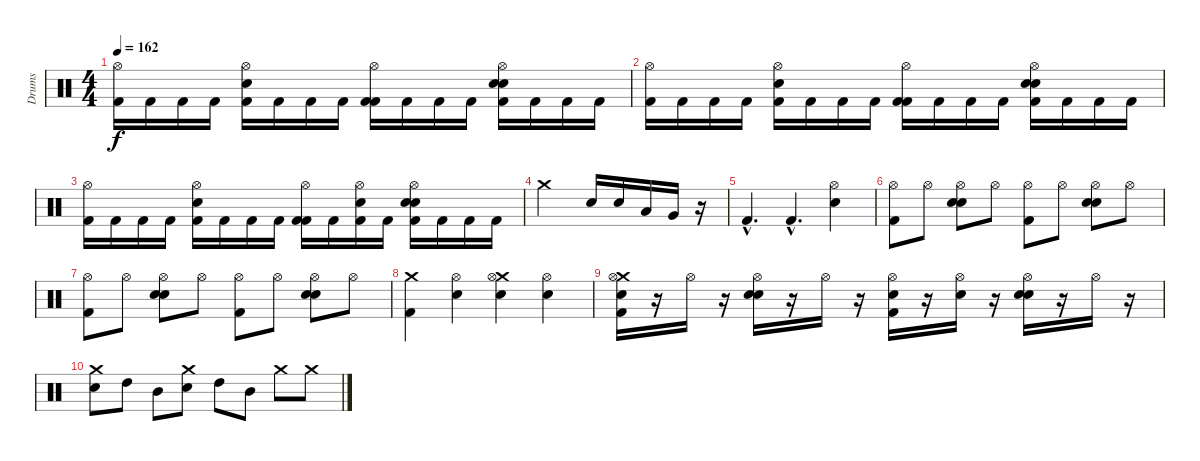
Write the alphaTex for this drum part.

\track ("Drums" "Drums") {instrument percussion}
\staff {score}
\articulation defaults
\ts (4 4)
\tempo 162
\clef neutral
\ks c
("Hi-Hat (open)" "Kick (hit) 2").16{dy f} "Kick (hit) 2".16 "Kick (hit) 2".16 "Kick (hit) 2".16 ("Kick (hit) 2" "Electric Snare (hit)" "Hi-Hat (open)").16 "Kick (hit) 2".16 "Kick (hit) 2".16 "Kick (hit) 2".16 ("Kick (hit) 2" "Hi-Hat (open)" "Kick (hit) 2").16 "Kick (hit) 2".16 "Kick (hit) 2".16 "Kick (hit) 2".16 ("Kick (hit) 2" "Electric Snare (hit)" "Hi-Hat (open)" "Snare (hit) 2").16 "Kick (hit) 2".16 "Kick (hit) 2".16 "Kick (hit) 2".16 |
("Hi-Hat (open)" "Kick (hit) 2").16 "Kick (hit) 2".16 "Kick (hit) 2".16 "Kick (hit) 2".16 ("Kick (hit) 2" "Electric Snare (hit)" "Hi-Hat (open)").16 "Kick (hit) 2".16 "Kick (hit) 2".16 "Kick (hit) 2".16 ("Kick (hit) 2" "Hi-Hat (open)" "Kick (hit) 2").16 "Kick (hit) 2".16 "Kick (hit) 2".16 "Kick (hit) 2".16 ("Kick (hit) 2" "Electric Snare (hit)" "Hi-Hat (open)" "Snare (hit) 2").16 "Kick (hit) 2".16 "Kick (hit) 2".16 "Kick (hit) 2".16 |
("Hi-Hat (open)" "Kick (hit) 2").16 "Kick (hit) 2".16 "Kick (hit) 2".16 "Kick (hit) 2".16 ("Kick (hit) 2" "Electric Snare (hit)" "Hi-Hat (open)").16 "Kick (hit) 2".16 "Kick (hit) 2".16 "Kick (hit) 2".16 ("Kick (hit) 2" "Hi-Hat (open)" "Kick (hit) 2").16 "Kick (hit) 2".16 ("Kick (hit) 2" "Electric Snare (hit)" "Hi-Hat (open)").16 "Kick (hit) 2".16 ("Kick (hit) 2" "Electric Snare (hit)" "Hi-Hat (open)" "Snare (hit) 2").16 "Kick (hit) 2".16 "Kick (hit) 2".16 "Kick (hit) 2".16 |
"Crash medium (hit)".2 "Electric Snare (hit)".16 "Electric Snare (hit)".16 "Low Tom (hit)".16 "Very Low Tom (hit)".16 r.16 |
"Kick (hit) 2"{hac}.4{d} "Kick (hit) 2"{hac}.4{d} ("Hi-Hat (open)" "Electric Snare (hit)").4 |
("Hi-Hat (open)" "Kick (hit) 2").8 "Hi-Hat (open)".8 ("Electric Snare (hit)" "Hi-Hat (open)" "Snare (hit) 2").8 "Hi-Hat (open)".8 ("Hi-Hat (open)" "Kick (hit) 2").8 "Hi-Hat (open)".8 ("Electric Snare (hit)" "Hi-Hat (open)" "Snare (hit) 2").8 "Hi-Hat (open)".8 |
("Hi-Hat (open)" "Kick (hit) 2").8 "Hi-Hat (open)".8 ("Electric Snare (hit)" "Hi-Hat (open)" "Snare (hit) 2").8 "Hi-Hat (open)".8 ("Hi-Hat (open)" "Kick (hit) 2").8 "Hi-Hat (open)".8 ("Electric Snare (hit)" "Hi-Hat (open)" "Snare (hit) 2").8 "Hi-Hat (open)".8 |
("Crash medium (hit)" "Kick (hit) 2").4 ("Electric Snare (hit)" "Hi-Hat (open)").4 ("Crash medium (hit)" "Hi-Hat (open)" "Snare (hit) 2").4 ("Electric Snare (hit)" "Hi-Hat (open)").4 |
("Crash medium (hit)" "Electric Snare (hit)" "Hi-Hat (open)" "Kick (hit) 2").16 r.16 "Hi-Hat (open)".16 r.16 ("Electric Snare (hit)" "Hi-Hat (open)" "Snare (hit) 2").16 r.16 "Hi-Hat (open)".16 r.16 ("Electric Snare (hit)" "Hi-Hat (open)" "Kick (hit) 2").16 r.16 ("Hi-Hat (open)" "Electric Snare (hit)").16 r.16 ("Electric Snare (hit)" "Hi-Hat (open)" "Snare (hit) 2").16 r.16 "Hi-Hat (open)".16 r.16 |
("Crash medium (hit)" "Electric Snare (hit)").8 "High Tom (hit)".8 "Mid Tom (hit)".8 ("Crash medium (hit)" "Electric Snare (hit)").8 "High Tom (hit)".8 "Mid Tom (hit)".8 "Crash medium (hit)".8 "Crash medium (hit)".8
